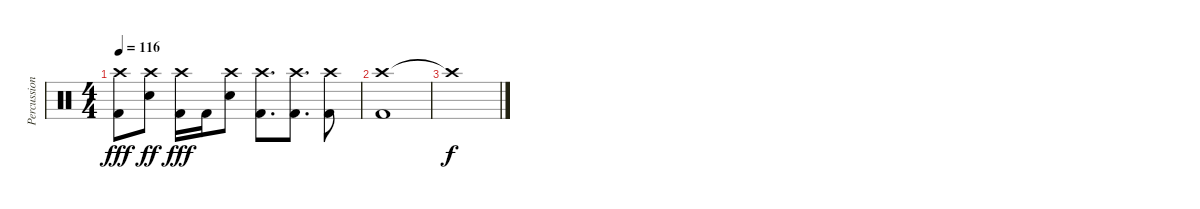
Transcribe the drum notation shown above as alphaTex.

\track ("Percussioni" "Percussion") {instrument percussion}
\staff {score}
\articulation defaults
\ts (4 4)
\tempo 116
\clef neutral
\ks c
("Crash high (hit)" "Kick (hit) 2").8{dy fff} ("Crash high (hit)" "Snare (hit) 2").8{dy ff} ("Crash high (hit)" "Kick (hit) 2").16{dy fff} "Kick (hit) 2".16 ("Crash high (hit)" "Snare (hit) 2").8 ("Crash high (hit)" "Kick (hit) 2").8{d} ("Crash high (hit)" "Kick (hit) 2").8{d} ("Crash high (hit)" "Kick (hit) 2").8 |
("Crash high (hit)" "Kick (hit) 2").1 |
"Crash high (hit)"{t}.1{dy f}
